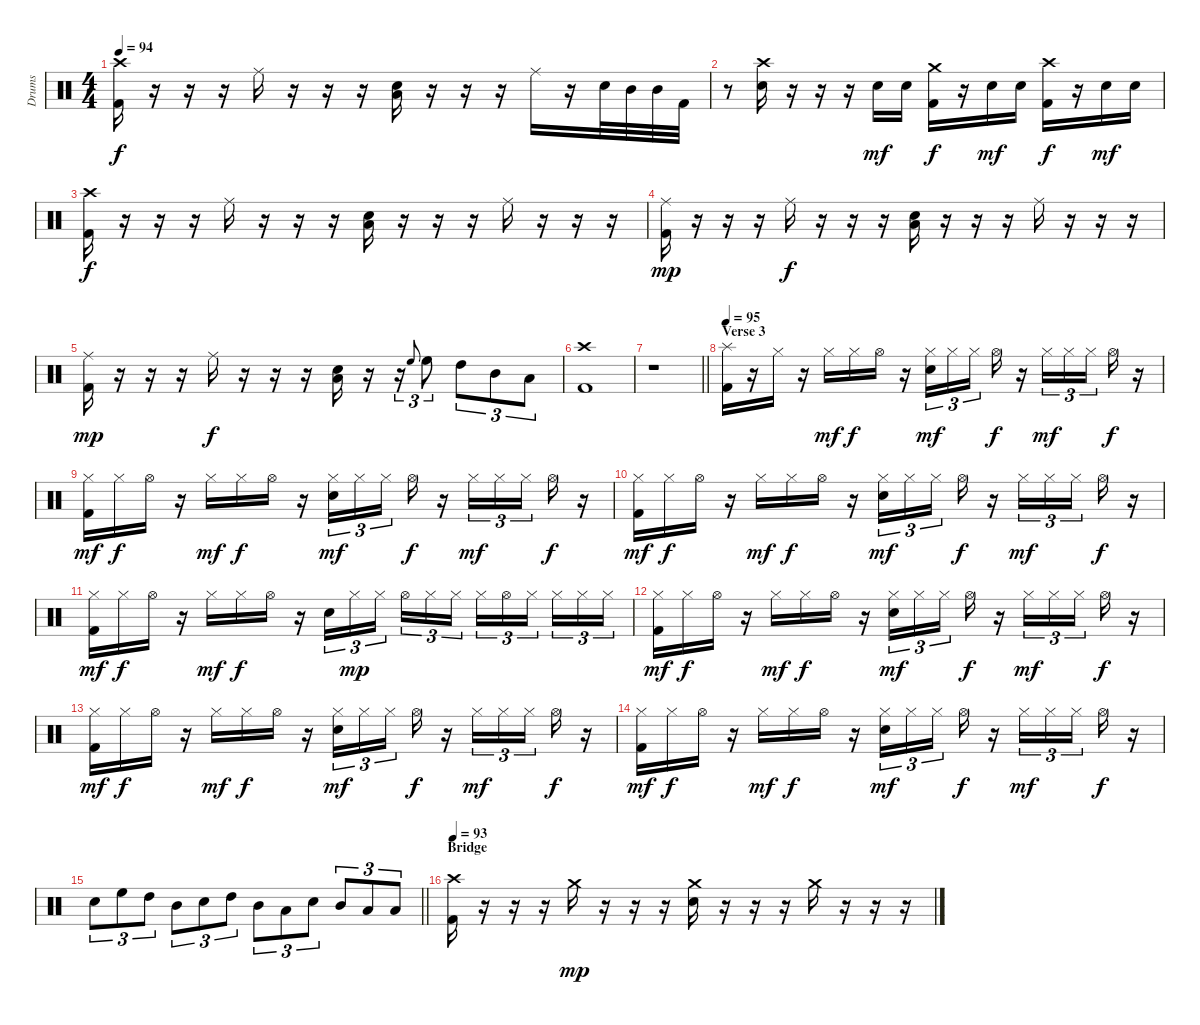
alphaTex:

\track ("Drums" "Drums") {instrument percussion}
\staff {score}
\articulation defaults
\ts (4 4)
\tempo 94
\clef neutral
\ks c
("Kick (hit) 2" "Crash high (hit)").16{dy f} r.16 r.16 r.16 "Ride (middle)".16 r.16 r.16 r.16 ("Snare (hit) 2" "Low Tom (hit)").16 r.16 r.16 r.16 "Ride (middle)".16 r.16 "Snare (hit) 2".32 "Mid Tom (hit)".32 "Mid Tom (hit)".32 "Kick (hit) 2".32 |
r.8 ("Snare (hit) 2" "Crash high (hit)").16 r.16 r.16 r.16 "Snare (hit) 2".16{dy mf} "Snare (hit) 2".16 ("Kick (hit) 2" "Crash medium (hit)").16{dy f} r.16 "Snare (hit) 2".16{dy mf} "Snare (hit) 2".16 ("Kick (hit) 2" "Crash high (hit)").16{dy f} r.16 "Snare (hit) 2".16{dy mf} "Snare (hit) 2".16 |
("Kick (hit) 2" "Crash high (hit)").16{dy f} r.16 r.16 r.16 "Ride (middle)".16 r.16 r.16 r.16 ("Snare (hit) 2" "Low Tom (hit)").16 r.16 r.16 r.16 "Ride (middle)".16 r.16 r.16 r.16 |
("Kick (hit) 2" "Ride (middle)").16{dy mp} r.16 r.16 r.16 "Ride (middle)".16{dy f} r.16 r.16 r.16 ("Snare (hit) 2" "Low Tom (hit)").16 r.16 r.16 r.16 "Ride (middle)".16 r.16 r.16 r.16 |
("Kick (hit) 2" "Ride (middle)").16{dy mp} r.16 r.16 r.16 "Ride (middle)".16{dy f} r.16 r.16 r.16 ("Snare (hit) 2" "Low Tom (hit)").16 r.16 r.16{tu (3 2)} "High Floor Tom (hit)".8{gr onbeat} "High Floor Tom (hit)".8{tu (3 2)} "High Tom (hit)".8{tu (3 2)} "Mid Tom (hit)".8{tu (3 2)} "Low Tom (hit)".8{tu (3 2)} |
("Crash high (hit)" "Kick (hit) 2").1 |
\barLineRight lightlight
r.1 |
\section ("" "Verse 3")
\tempo 95
("Splash (hit)" "Kick (hit) 2").16 r.16 "Hi-Hat (closed)".16 r.16 "Hi-Hat (closed)".16{dy mf} "Hi-Hat (closed)".16{dy f} "Hi-Hat (open)".16 r.16 ("Hi-Hat (closed)" "Snare (hit) 2").16{tu (3 2) dy mf} "Hi-Hat (closed)".16{tu (3 2)} "Hi-Hat (closed)".16{tu (3 2) beam splitsecondary} "Hi-Hat (open)".16{dy f} r.16 "Hi-Hat (closed)".16{tu (3 2) dy mf} "Hi-Hat (closed)".16{tu (3 2)} "Hi-Hat (closed)".16{tu (3 2) beam splitsecondary} "Hi-Hat (open)".16{dy f} r.16 |
("Hi-Hat (closed)" "Kick (hit) 2").16{dy mf} "Hi-Hat (closed)".16{dy f} "Hi-Hat (open)".16 r.16 "Hi-Hat (closed)".16{dy mf} "Hi-Hat (closed)".16{dy f} "Hi-Hat (open)".16 r.16 ("Hi-Hat (closed)" "Snare (hit) 2").16{tu (3 2) dy mf} "Hi-Hat (closed)".16{tu (3 2)} "Hi-Hat (closed)".16{tu (3 2) beam splitsecondary} "Hi-Hat (open)".16{dy f} r.16 "Hi-Hat (closed)".16{tu (3 2) dy mf} "Hi-Hat (closed)".16{tu (3 2)} "Hi-Hat (closed)".16{tu (3 2) beam splitsecondary} "Hi-Hat (open)".16{dy f} r.16 |
("Hi-Hat (closed)" "Kick (hit) 2").16{dy mf} "Hi-Hat (closed)".16{dy f} "Hi-Hat (open)".16 r.16 "Hi-Hat (closed)".16{dy mf} "Hi-Hat (closed)".16{dy f} "Hi-Hat (open)".16 r.16 ("Hi-Hat (closed)" "Snare (hit) 2").16{tu (3 2) dy mf} "Hi-Hat (closed)".16{tu (3 2)} "Hi-Hat (closed)".16{tu (3 2) beam splitsecondary} "Hi-Hat (open)".16{dy f} r.16 "Hi-Hat (closed)".16{tu (3 2) dy mf} "Hi-Hat (closed)".16{tu (3 2)} "Hi-Hat (closed)".16{tu (3 2) beam splitsecondary} "Hi-Hat (open)".16{dy f} r.16 |
("Hi-Hat (closed)" "Kick (hit) 2").16{dy mf} "Hi-Hat (closed)".16{dy f} "Hi-Hat (open)".16 r.16 "Hi-Hat (closed)".16{dy mf} "Hi-Hat (closed)".16{dy f} "Hi-Hat (open)".16 r.16 "Snare (hit) 2".16{tu (3 2)} "Hi-Hat (closed)".16{tu (3 2) dy mp} "Hi-Hat (closed)".16{tu (3 2) beam splitsecondary} "Hi-Hat (open)".16{tu (3 2)} "Hi-Hat (closed)".16{tu (3 2)} "Hi-Hat (closed)".16{tu (3 2)} "Hi-Hat (closed)".16{tu (3 2)} "Hi-Hat (open)".16{tu (3 2)} "Hi-Hat (closed)".16{tu (3 2) beam splitsecondary} "Hi-Hat (closed)".16{tu (3 2)} "Hi-Hat (closed)".16{tu (3 2)} "Hi-Hat (closed)".16{tu (3 2)} |
("Hi-Hat (closed)" "Kick (hit) 2").16{dy mf} "Hi-Hat (closed)".16{dy f} "Hi-Hat (open)".16 r.16 "Hi-Hat (closed)".16{dy mf} "Hi-Hat (closed)".16{dy f} "Hi-Hat (open)".16 r.16 ("Hi-Hat (closed)" "Snare (hit) 2").16{tu (3 2) dy mf} "Hi-Hat (closed)".16{tu (3 2)} "Hi-Hat (closed)".16{tu (3 2) beam splitsecondary} "Hi-Hat (open)".16{dy f} r.16 "Hi-Hat (closed)".16{tu (3 2) dy mf} "Hi-Hat (closed)".16{tu (3 2)} "Hi-Hat (closed)".16{tu (3 2) beam splitsecondary} "Hi-Hat (open)".16{dy f} r.16 |
("Hi-Hat (closed)" "Kick (hit) 2").16{dy mf} "Hi-Hat (closed)".16{dy f} "Hi-Hat (open)".16 r.16 "Hi-Hat (closed)".16{dy mf} "Hi-Hat (closed)".16{dy f} "Hi-Hat (open)".16 r.16 ("Hi-Hat (closed)" "Snare (hit) 2").16{tu (3 2) dy mf} "Hi-Hat (closed)".16{tu (3 2)} "Hi-Hat (closed)".16{tu (3 2) beam splitsecondary} "Hi-Hat (open)".16{dy f} r.16 "Hi-Hat (closed)".16{tu (3 2) dy mf} "Hi-Hat (closed)".16{tu (3 2)} "Hi-Hat (closed)".16{tu (3 2) beam splitsecondary} "Hi-Hat (open)".16{dy f} r.16 |
("Hi-Hat (closed)" "Kick (hit) 2").16{dy mf} "Hi-Hat (closed)".16{dy f} "Hi-Hat (open)".16 r.16 "Hi-Hat (closed)".16{dy mf} "Hi-Hat (closed)".16{dy f} "Hi-Hat (open)".16 r.16 ("Hi-Hat (closed)" "Snare (hit) 2").16{tu (3 2) dy mf} "Hi-Hat (closed)".16{tu (3 2)} "Hi-Hat (closed)".16{tu (3 2) beam splitsecondary} "Hi-Hat (open)".16{dy f} r.16 "Hi-Hat (closed)".16{tu (3 2) dy mf} "Hi-Hat (closed)".16{tu (3 2)} "Hi-Hat (closed)".16{tu (3 2) beam splitsecondary} "Hi-Hat (open)".16{dy f} r.16 |
\barLineRight lightlight "Snare (hit) 2".8{tu (3 2)} "High Floor Tom (hit)".8{tu (3 2)} "High Tom (hit)".8{tu (3 2)} "Mid Tom (hit)".8{tu (3 2)} "Snare (hit) 2".8{tu (3 2)} "High Tom (hit)".8{tu (3 2)} "Mid Tom (hit)".8{tu (3 2)} "Low Tom (hit)".8{tu (3 2)} "Snare (hit) 2".8{tu (3 2)} "Mid Tom (hit)".8{tu (3 2)} "Low Tom (hit)".8{tu (3 2)} "Low Tom (hit)".8{tu (3 2)}
|
\section ("" "Bridge")
\tempo 93
("Crash high (hit)" "Kick (hit) 2").16 r.16 r.16 r.16 "Crash medium (hit)".16{dy mp} r.16 r.16 r.16 ("Crash medium (hit)" "Snare (hit) 2").16 r.16 r.16 r.16 "Crash medium (hit)".16 r.16 r.16 r.16
